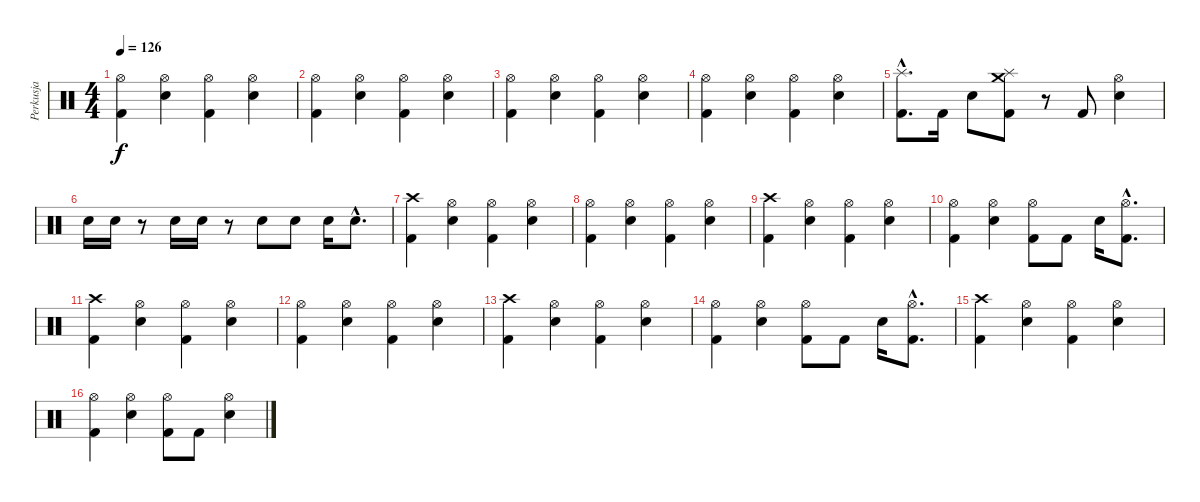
\track ("Perkusja" "Perkusja") {instrument percussion}
\staff {score}
\articulation defaults
\ts (4 4)
\tempo 126
\clef neutral
\ks c
("Hi-Hat (open)" "Kick (hit) 2").4{dy f} ("Hi-Hat (open)" "Electric Snare (hit)").4 ("Hi-Hat (open)" "Kick (hit) 2").4 ("Hi-Hat (open)" "Electric Snare (hit)").4 |
("Hi-Hat (open)" "Kick (hit) 2").4 ("Hi-Hat (open)" "Electric Snare (hit)").4 ("Hi-Hat (open)" "Kick (hit) 2").4 ("Hi-Hat (open)" "Electric Snare (hit)").4 |
("Hi-Hat (open)" "Kick (hit) 2").4 ("Hi-Hat (open)" "Electric Snare (hit)").4 ("Hi-Hat (open)" "Kick (hit) 2").4 ("Hi-Hat (open)" "Electric Snare (hit)").4 |
("Hi-Hat (open)" "Kick (hit) 2").4 ("Hi-Hat (open)" "Electric Snare (hit)").4 ("Hi-Hat (open)" "Kick (hit) 2").4 ("Hi-Hat (open)" "Electric Snare (hit)").4 |
("Splash (hit)"{hac} "Kick (hit) 2"{hac}).8{d} "Kick (hit) 2".16 "Electric Snare (hit)".8 ("Crash medium (hit)" "Splash (hit)" "Kick (hit) 2").8 r.8 "Kick (hit) 2".8 ("Hi-Hat (open)" "Electric Snare (hit)").4 |
"Electric Snare (hit)".16 "Electric Snare (hit)".16 r.8 "Electric Snare (hit)".16 "Electric Snare (hit)".16 r.8 "Electric Snare (hit)".8 "Electric Snare (hit)".8 "Electric Snare (hit)".16 "Electric Snare (hit)"{hac}.8{d} |
("Crash high (hit)" "Kick (hit) 2").4 ("Hi-Hat (open)" "Electric Snare (hit)").4 ("Hi-Hat (open)" "Kick (hit) 2").4 ("Hi-Hat (open)" "Electric Snare (hit)").4 |
("Hi-Hat (open)" "Kick (hit) 2").4 ("Hi-Hat (open)" "Electric Snare (hit)").4 ("Hi-Hat (open)" "Kick (hit) 2").4 ("Hi-Hat (open)" "Electric Snare (hit)").4 |
("Crash high (hit)" "Kick (hit) 2").4 ("Hi-Hat (open)" "Electric Snare (hit)").4 ("Hi-Hat (open)" "Kick (hit) 2").4 ("Hi-Hat (open)" "Electric Snare (hit)").4 |
("Hi-Hat (open)" "Kick (hit) 2").4 ("Hi-Hat (open)" "Electric Snare (hit)").4 ("Hi-Hat (open)" "Kick (hit) 2").8 "Kick (hit) 2".8 "Electric Snare (hit)".16 ("Hi-Hat (open)"{hac} "Kick (hit) 2"{hac}).8{d} |
("Crash high (hit)" "Kick (hit) 2").4 ("Hi-Hat (open)" "Electric Snare (hit)").4 ("Hi-Hat (open)" "Kick (hit) 2").4 ("Hi-Hat (open)" "Electric Snare (hit)").4 |
("Hi-Hat (open)" "Kick (hit) 2").4 ("Hi-Hat (open)" "Electric Snare (hit)").4 ("Hi-Hat (open)" "Kick (hit) 2").4 ("Hi-Hat (open)" "Electric Snare (hit)").4 |
("Crash high (hit)" "Kick (hit) 2").4 ("Hi-Hat (open)" "Electric Snare (hit)").4 ("Hi-Hat (open)" "Kick (hit) 2").4 ("Hi-Hat (open)" "Electric Snare (hit)").4 |
("Hi-Hat (open)" "Kick (hit) 2").4 ("Hi-Hat (open)" "Electric Snare (hit)").4 ("Hi-Hat (open)" "Kick (hit) 2").8 "Kick (hit) 2".8 "Electric Snare (hit)".16 ("Hi-Hat (open)"{hac} "Kick (hit) 2"{hac}).8{d} |
("Crash high (hit)" "Kick (hit) 2").4 ("Hi-Hat (open)" "Electric Snare (hit)").4 ("Hi-Hat (open)" "Kick (hit) 2").4 ("Hi-Hat (open)" "Electric Snare (hit)").4 |
("Hi-Hat (open)" "Kick (hit) 2").4 ("Hi-Hat (open)" "Electric Snare (hit)").4 ("Hi-Hat (open)" "Kick (hit) 2").8 "Kick (hit) 2".8 ("Hi-Hat (open)" "Electric Snare (hit)").4
